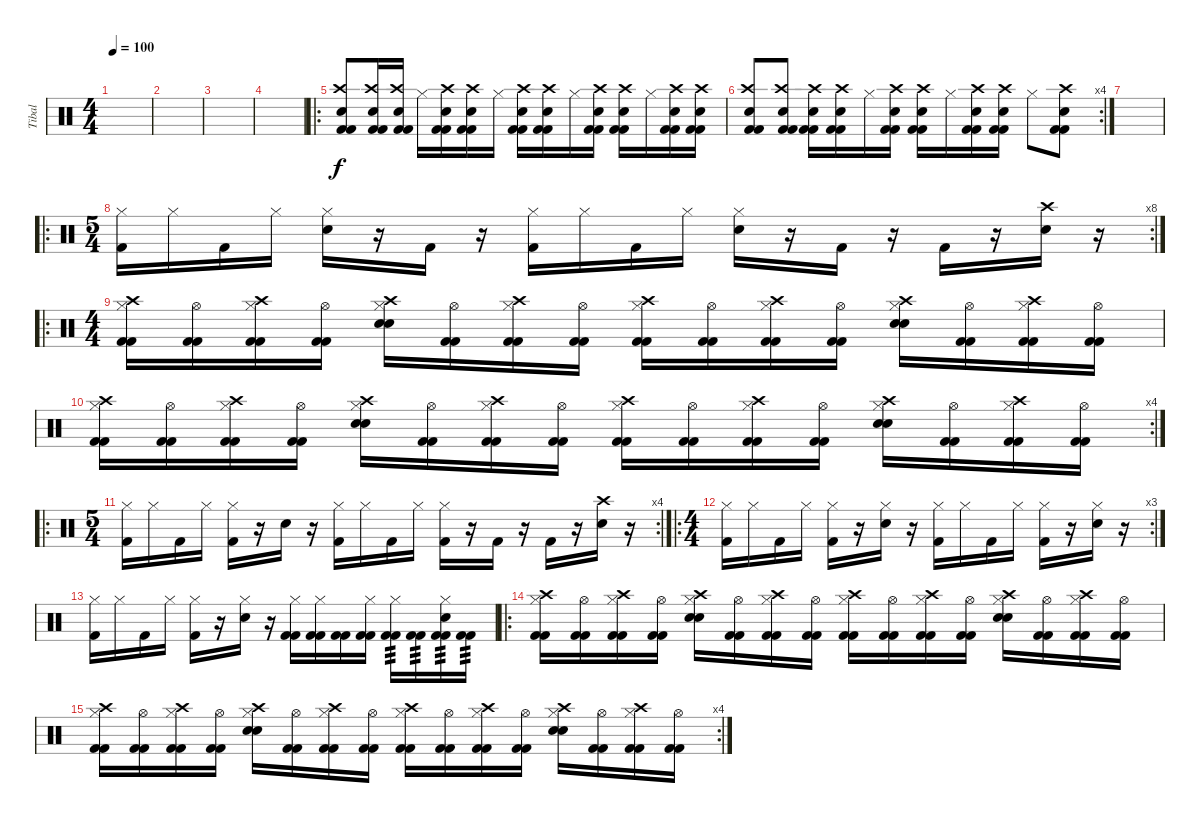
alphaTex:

\track ("Tibal" "Tibal") {instrument percussion}
\staff {score}
\articulation defaults
\ts (4 4)
\tempo 100
\clef neutral
\ks c
|
|
|
|
\ro
("Snare (hit) 2" "Crash high (hit)" "Kick (hit) 2" "Kick (hit) 2").8 ("Snare (hit) 2" "Crash high (hit)" "Kick (hit) 2" "Kick (hit) 2").16 ("Snare (hit) 2" "Crash high (hit)" "Kick (hit) 2" "Kick (hit) 2").16 "Hi-Hat (closed)".16 ("Snare (hit) 2" "Crash high (hit)" "Kick (hit) 2" "Kick (hit) 2").16 ("Snare (hit) 2" "Crash high (hit)" "Kick (hit) 2" "Kick (hit) 2").16 "Hi-Hat (closed)".16 ("Snare (hit) 2" "Crash high (hit)" "Kick (hit) 2" "Kick (hit) 2").16 ("Snare (hit) 2" "Crash high (hit)" "Kick (hit) 2" "Kick (hit) 2").16 "Hi-Hat (closed)".16 ("Snare (hit) 2" "Crash high (hit)" "Kick (hit) 2" "Kick (hit) 2").16 ("Snare (hit) 2" "Crash high (hit)" "Kick (hit) 2" "Kick (hit) 2").16 "Hi-Hat (closed)".16 ("Snare (hit) 2" "Crash high (hit)" "Kick (hit) 2" "Kick (hit) 2").16 ("Snare (hit) 2" "Crash high (hit)" "Kick (hit) 2" "Kick (hit) 2").16 |
\rc 4
("Snare (hit) 2" "Crash high (hit)" "Kick (hit) 2" "Kick (hit) 2").8 ("Snare (hit) 2" "Crash high (hit)" "Kick (hit) 2" "Kick (hit) 2").8 ("Snare (hit) 2" "Crash high (hit)" "Kick (hit) 2" "Kick (hit) 2").16 ("Snare (hit) 2" "Crash high (hit)" "Kick (hit) 2" "Kick (hit) 2").16 "Hi-Hat (closed)".16 ("Snare (hit) 2" "Crash high (hit)" "Kick (hit) 2" "Kick (hit) 2").16 ("Snare (hit) 2" "Crash high (hit)" "Kick (hit) 2" "Kick (hit) 2").16 "Hi-Hat (closed)".16 ("Snare (hit) 2" "Crash high (hit)" "Kick (hit) 2" "Kick (hit) 2").16 ("Snare (hit) 2" "Crash high (hit)" "Kick (hit) 2" "Kick (hit) 2").16 "Hi-Hat (closed)".8 ("Snare (hit) 2" "Crash high (hit)" "Kick (hit) 2" "Kick (hit) 2").8 |
|
\ro
\rc 8
\ts (5 4)
("Hi-Hat (closed)" "Kick (hit) 2").16 "Hi-Hat (closed)".16 "Kick (hit) 2".16 "Hi-Hat (closed)".16 ("Hi-Hat (closed)" "Snare (hit) 2").16 r.16 "Kick (hit) 2".16 r.16 ("Hi-Hat (closed)" "Kick (hit) 2").16 "Hi-Hat (closed)".16 "Kick (hit) 2".16 "Hi-Hat (closed)".16 ("Hi-Hat (closed)" "Snare (hit) 2").16 r.16 "Kick (hit) 2".16 r.16 "Kick (hit) 2".16 r.16 ("Crash high (hit)" "Snare (hit) 2").16 r.16 |
\ro
\ts (4 4)
("Crash high (hit)" "Hi-Hat (closed)" "Kick (hit) 2" "Kick (hit) 2").16 ("Hi-Hat (open)" "Kick (hit) 2" "Kick (hit) 2").16 ("Crash high (hit)" "Hi-Hat (closed)" "Kick (hit) 2" "Kick (hit) 2").16 ("Hi-Hat (open)" "Kick (hit) 2" "Kick (hit) 2").16 ("Crash high (hit)" "Hi-Hat (closed)" "Snare (hit) 2" "Snare (hit) 2").16 ("Hi-Hat (open)" "Kick (hit) 2" "Kick (hit) 2").16 ("Crash high (hit)" "Hi-Hat (closed)" "Kick (hit) 2" "Kick (hit) 2").16 ("Hi-Hat (open)" "Kick (hit) 2" "Kick (hit) 2").16 ("Crash high (hit)" "Hi-Hat (closed)" "Kick (hit) 2" "Kick (hit) 2").16 ("Hi-Hat (open)" "Kick (hit) 2" "Kick (hit) 2").16 ("Crash high (hit)" "Hi-Hat (closed)" "Kick (hit) 2" "Kick (hit) 2").16 ("Hi-Hat (open)" "Kick (hit) 2" "Kick (hit) 2").16 ("Crash high (hit)" "Hi-Hat (closed)" "Snare (hit) 2" "Snare (hit) 2").16 ("Hi-Hat (open)" "Kick (hit) 2" "Kick (hit) 2").16 ("Crash high (hit)" "Hi-Hat (closed)" "Kick (hit) 2" "Kick (hit) 2").16 ("Hi-Hat (open)" "Kick (hit) 2" "Kick (hit) 2").16 |
\rc 4
("Crash high (hit)" "Hi-Hat (closed)" "Kick (hit) 2" "Kick (hit) 2").16 ("Hi-Hat (open)" "Kick (hit) 2" "Kick (hit) 2").16 ("Crash high (hit)" "Hi-Hat (closed)" "Kick (hit) 2" "Kick (hit) 2").16 ("Hi-Hat (open)" "Kick (hit) 2" "Kick (hit) 2").16 ("Crash high (hit)" "Hi-Hat (closed)" "Snare (hit) 2" "Snare (hit) 2").16 ("Hi-Hat (open)" "Kick (hit) 2" "Kick (hit) 2").16 ("Crash high (hit)" "Hi-Hat (closed)" "Kick (hit) 2" "Kick (hit) 2").16 ("Hi-Hat (open)" "Kick (hit) 2" "Kick (hit) 2").16 ("Crash high (hit)" "Hi-Hat (closed)" "Kick (hit) 2" "Kick (hit) 2").16 ("Hi-Hat (open)" "Kick (hit) 2" "Kick (hit) 2").16 ("Crash high (hit)" "Hi-Hat (closed)" "Kick (hit) 2" "Kick (hit) 2").16 ("Hi-Hat (open)" "Kick (hit) 2" "Kick (hit) 2").16 ("Crash high (hit)" "Hi-Hat (closed)" "Snare (hit) 2" "Snare (hit) 2").16 ("Hi-Hat (open)" "Kick (hit) 2" "Kick (hit) 2").16 ("Crash high (hit)" "Hi-Hat (closed)" "Kick (hit) 2" "Kick (hit) 2").16 ("Hi-Hat (open)" "Kick (hit) 2" "Kick (hit) 2").16 |
\ro
\rc 4
\ts (5 4)
("Hi-Hat (closed)" "Kick (hit) 2").16 "Hi-Hat (closed)".16 "Kick (hit) 2".16 "Hi-Hat (closed)".16 ("Hi-Hat (closed)" "Kick (hit) 2").16 r.16 "Snare (hit) 2".16 r.16 ("Hi-Hat (closed)" "Kick (hit) 2").16 "Hi-Hat (closed)".16 "Kick (hit) 2".16 "Hi-Hat (closed)".16 ("Hi-Hat (closed)" "Kick (hit) 2").16 r.16 "Kick (hit) 2".16 r.16 "Kick (hit) 2".16 r.16 ("Crash high (hit)" "Snare (hit) 2").16 r.16 |
\ro
\rc 3
\ts (4 4)
("Hi-Hat (closed)" "Kick (hit) 2").16 "Hi-Hat (closed)".16 "Kick (hit) 2".16 "Hi-Hat (closed)".16 ("Hi-Hat (closed)" "Kick (hit) 2").16 r.16 ("Hi-Hat (closed)" "Snare (hit) 2").16 r.16 ("Hi-Hat (closed)" "Kick (hit) 2").16 "Hi-Hat (closed)".16 "Kick (hit) 2".16 "Hi-Hat (closed)".16 ("Hi-Hat (closed)" "Kick (hit) 2").16 r.16 ("Hi-Hat (closed)" "Snare (hit) 2").16 r.16 |
("Hi-Hat (closed)" "Kick (hit) 2").16 "Hi-Hat (closed)".16 "Kick (hit) 2".16 "Hi-Hat (closed)".16 ("Hi-Hat (closed)" "Kick (hit) 2").16 r.16 ("Hi-Hat (closed)" "Snare (hit) 2").16 r.16 ("Hi-Hat (closed)" "Kick (hit) 2" "Kick (hit) 2").16 ("Hi-Hat (closed)" "Kick (hit) 2" "Kick (hit) 2").16 ("Kick (hit) 2" "Kick (hit) 2").16 ("Hi-Hat (closed)" "Kick (hit) 2" "Kick (hit) 2").16 ("Hi-Hat (closed)" "Kick (hit) 2" "Kick (hit) 2").16{tp 3} ("Kick (hit) 2" "Kick (hit) 2").16{tp 3} ("Snare (hit) 2" "Hi-Hat (closed)" "Kick (hit) 2" "Kick (hit) 2").16{tp 3} ("Kick (hit) 2" "Kick (hit) 2").16{tp 3} |
\ro
("Crash high (hit)" "Hi-Hat (closed)" "Kick (hit) 2" "Kick (hit) 2").16 ("Hi-Hat (open)" "Kick (hit) 2" "Kick (hit) 2").16 ("Crash high (hit)" "Hi-Hat (closed)" "Kick (hit) 2" "Kick (hit) 2").16 ("Hi-Hat (open)" "Kick (hit) 2" "Kick (hit) 2").16 ("Crash high (hit)" "Hi-Hat (closed)" "Snare (hit) 2" "Snare (hit) 2").16 ("Hi-Hat (open)" "Kick (hit) 2" "Kick (hit) 2").16 ("Crash high (hit)" "Hi-Hat (closed)" "Kick (hit) 2" "Kick (hit) 2").16 ("Hi-Hat (open)" "Kick (hit) 2" "Kick (hit) 2").16 ("Crash high (hit)" "Hi-Hat (closed)" "Kick (hit) 2" "Kick (hit) 2").16 ("Hi-Hat (open)" "Kick (hit) 2" "Kick (hit) 2").16 ("Crash high (hit)" "Hi-Hat (closed)" "Kick (hit) 2" "Kick (hit) 2").16 ("Hi-Hat (open)" "Kick (hit) 2" "Kick (hit) 2").16 ("Crash high (hit)" "Hi-Hat (closed)" "Snare (hit) 2" "Snare (hit) 2").16 ("Hi-Hat (open)" "Kick (hit) 2" "Kick (hit) 2").16 ("Crash high (hit)" "Hi-Hat (closed)" "Kick (hit) 2" "Kick (hit) 2").16 ("Hi-Hat (open)" "Kick (hit) 2" "Kick (hit) 2").16 |
\rc 4
("Crash high (hit)" "Hi-Hat (closed)" "Kick (hit) 2" "Kick (hit) 2").16 ("Hi-Hat (open)" "Kick (hit) 2" "Kick (hit) 2").16 ("Crash high (hit)" "Hi-Hat (closed)" "Kick (hit) 2" "Kick (hit) 2").16 ("Hi-Hat (open)" "Kick (hit) 2" "Kick (hit) 2").16 ("Crash high (hit)" "Hi-Hat (closed)" "Snare (hit) 2" "Snare (hit) 2").16 ("Hi-Hat (open)" "Kick (hit) 2" "Kick (hit) 2").16 ("Crash high (hit)" "Hi-Hat (closed)" "Kick (hit) 2" "Kick (hit) 2").16 ("Hi-Hat (open)" "Kick (hit) 2" "Kick (hit) 2").16 ("Crash high (hit)" "Hi-Hat (closed)" "Kick (hit) 2" "Kick (hit) 2").16 ("Hi-Hat (open)" "Kick (hit) 2" "Kick (hit) 2").16 ("Crash high (hit)" "Hi-Hat (closed)" "Kick (hit) 2" "Kick (hit) 2").16 ("Hi-Hat (open)" "Kick (hit) 2" "Kick (hit) 2").16 ("Crash high (hit)" "Hi-Hat (closed)" "Snare (hit) 2" "Snare (hit) 2").16 ("Hi-Hat (open)" "Kick (hit) 2" "Kick (hit) 2").16 ("Crash high (hit)" "Hi-Hat (closed)" "Kick (hit) 2" "Kick (hit) 2").16 ("Hi-Hat (open)" "Kick (hit) 2" "Kick (hit) 2").16
